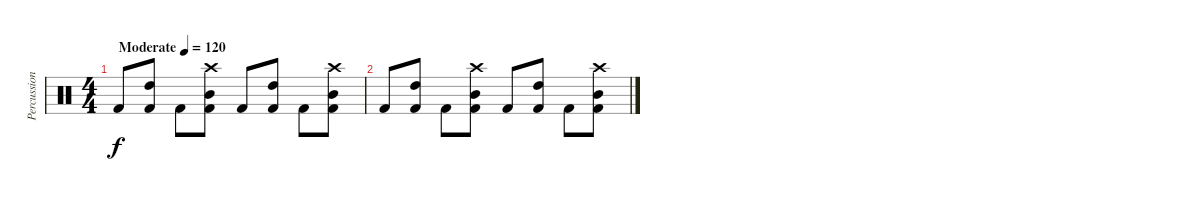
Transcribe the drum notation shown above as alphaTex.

\track ("Percussion" "Percussion") {instrument percussion}
\staff {score}
\articulation defaults
\ts (4 4)
\tempo (120 "Moderate")
\clef neutral
\ks c "Kick (hit) 2".8{dy f}
("Kick (hit) 2" "High Tom (hit)").8 "Kick (hit) 2".8 ("Kick (hit) 2" "Mid Tom (hit)" "Crash high (hit)").8 "Kick (hit) 2".8 ("Kick (hit) 2" "High Tom (hit)").8 "Kick (hit) 2".8 ("Kick (hit) 2" "Mid Tom (hit)" "Crash high (hit)").8 |
"Kick (hit) 2".8 ("Kick (hit) 2" "High Tom (hit)").8 "Kick (hit) 2".8 ("Kick (hit) 2" "Mid Tom (hit)" "Crash high (hit)").8 "Kick (hit) 2".8 ("Kick (hit) 2" "High Tom (hit)").8 "Kick (hit) 2".8 ("Kick (hit) 2" "Mid Tom (hit)" "Crash high (hit)").8
